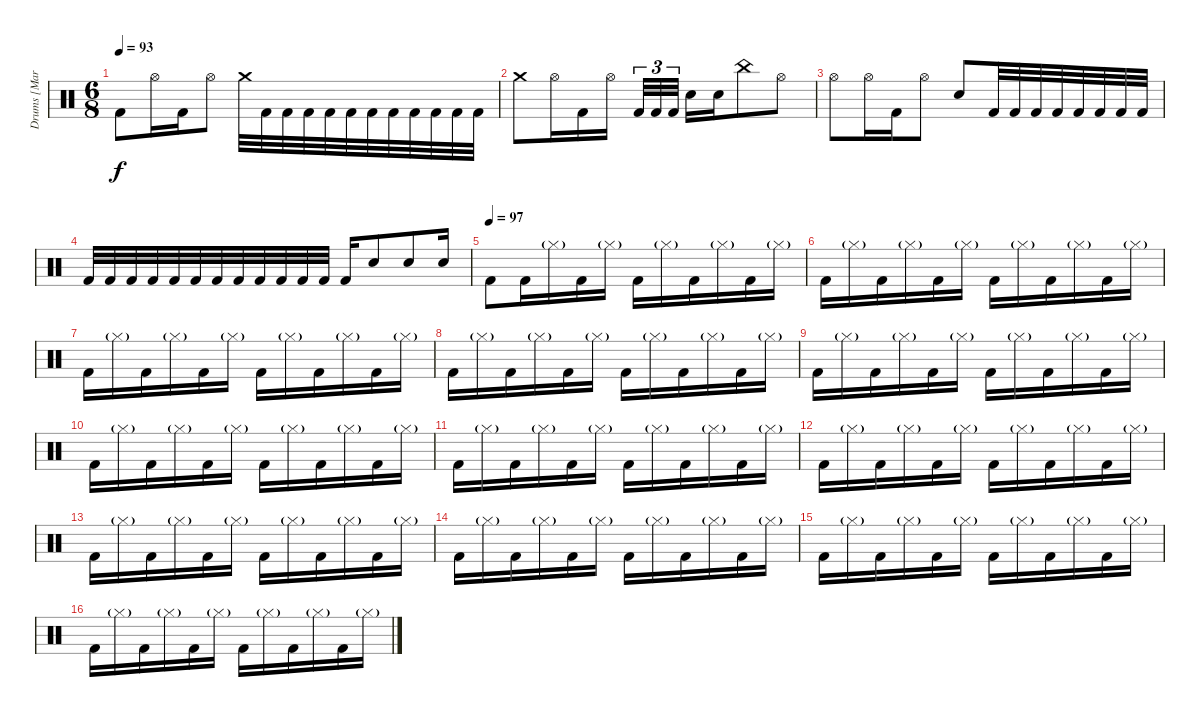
\track ("Drums [Martin Lopez]" "Drums [Mar") {instrument percussion}
\staff {score}
\articulation defaults
\ts (6 8)
\tempo 93
\clef neutral
\ks c "Kick (hit) 2".8{dy f} "Hi-Hat (open)".16 "Kick (hit) 2".16 "Hi-Hat (open)".8 "Crash medium (hit)".32 "Kick (hit) 2".32 "Kick (hit) 2".32 "Kick (hit) 2".32 "Kick (hit) 2".32 "Kick (hit) 2".32 "Kick (hit) 2".32 "Kick (hit) 2".32 "Kick (hit) 2".32 "Kick (hit) 2".32 "Kick (hit) 2".32 "Kick (hit) 2".32
|
"Crash medium (hit)".8 "Hi-Hat (open)".16 "Kick (hit) 2".16 "Hi-Hat (open)".16 "Kick (hit) 2".32{tu (3 2)} "Kick (hit) 2".32{tu (3 2)} "Kick (hit) 2".32{tu (3 2)} "Snare (hit) 2".16 "Snare (hit) 2".16 "China (hit)".8 "Hi-Hat (open)".8 |
"Hi-Hat (open)".8 "Hi-Hat (open)".16 "Kick (hit) 2".16 "Hi-Hat (open)".8 "Snare (hit) 2".8 "Kick (hit) 2".32 "Kick (hit) 2".32 "Kick (hit) 2".32 "Kick (hit) 2".32 "Kick (hit) 2".32 "Kick (hit) 2".32 "Kick (hit) 2".32 "Kick (hit) 2".32 |
"Kick (hit) 2".32 "Kick (hit) 2".32 "Kick (hit) 2".32 "Kick (hit) 2".32 "Kick (hit) 2".32 "Kick (hit) 2".32 "Kick (hit) 2".32 "Kick (hit) 2".32 "Kick (hit) 2".32 "Kick (hit) 2".32 "Kick (hit) 2".32 "Kick (hit) 2".32 "Kick (hit) 2".16 "Snare (hit) 2".8 "Snare (hit) 2".8 "Snare (hit) 2".16 |
\tempo (97)
"Kick (hit) 2".8 "Kick (hit) 2".16 "Hi-Hat (closed)"{g}.16 "Kick (hit) 2".16 "Hi-Hat (closed)"{g}.16 "Kick (hit) 2".16 "Hi-Hat (closed)"{g}.16 "Kick (hit) 2".16 "Hi-Hat (closed)"{g}.16 "Kick (hit) 2".16 "Hi-Hat (closed)"{g}.16 |
"Kick (hit) 2".16 "Hi-Hat (closed)"{g}.16 "Kick (hit) 2".16 "Hi-Hat (closed)"{g}.16 "Kick (hit) 2".16 "Hi-Hat (closed)"{g}.16 "Kick (hit) 2".16 "Hi-Hat (closed)"{g}.16 "Kick (hit) 2".16 "Hi-Hat (closed)"{g}.16 "Kick (hit) 2".16 "Hi-Hat (closed)"{g}.16 |
"Kick (hit) 2".16 "Hi-Hat (closed)"{g}.16 "Kick (hit) 2".16 "Hi-Hat (closed)"{g}.16 "Kick (hit) 2".16 "Hi-Hat (closed)"{g}.16 "Kick (hit) 2".16 "Hi-Hat (closed)"{g}.16 "Kick (hit) 2".16 "Hi-Hat (closed)"{g}.16 "Kick (hit) 2".16 "Hi-Hat (closed)"{g}.16 |
"Kick (hit) 2".16 "Hi-Hat (closed)"{g}.16 "Kick (hit) 2".16 "Hi-Hat (closed)"{g}.16 "Kick (hit) 2".16 "Hi-Hat (closed)"{g}.16 "Kick (hit) 2".16 "Hi-Hat (closed)"{g}.16 "Kick (hit) 2".16 "Hi-Hat (closed)"{g}.16 "Kick (hit) 2".16 "Hi-Hat (closed)"{g}.16 |
"Kick (hit) 2".16 "Hi-Hat (closed)"{g}.16 "Kick (hit) 2".16 "Hi-Hat (closed)"{g}.16 "Kick (hit) 2".16 "Hi-Hat (closed)"{g}.16 "Kick (hit) 2".16 "Hi-Hat (closed)"{g}.16 "Kick (hit) 2".16 "Hi-Hat (closed)"{g}.16 "Kick (hit) 2".16 "Hi-Hat (closed)"{g}.16 |
"Kick (hit) 2".16 "Hi-Hat (closed)"{g}.16 "Kick (hit) 2".16 "Hi-Hat (closed)"{g}.16 "Kick (hit) 2".16 "Hi-Hat (closed)"{g}.16 "Kick (hit) 2".16 "Hi-Hat (closed)"{g}.16 "Kick (hit) 2".16 "Hi-Hat (closed)"{g}.16 "Kick (hit) 2".16 "Hi-Hat (closed)"{g}.16 |
"Kick (hit) 2".16 "Hi-Hat (closed)"{g}.16 "Kick (hit) 2".16 "Hi-Hat (closed)"{g}.16 "Kick (hit) 2".16 "Hi-Hat (closed)"{g}.16 "Kick (hit) 2".16 "Hi-Hat (closed)"{g}.16 "Kick (hit) 2".16 "Hi-Hat (closed)"{g}.16 "Kick (hit) 2".16 "Hi-Hat (closed)"{g}.16 |
"Kick (hit) 2".16 "Hi-Hat (closed)"{g}.16 "Kick (hit) 2".16 "Hi-Hat (closed)"{g}.16 "Kick (hit) 2".16 "Hi-Hat (closed)"{g}.16 "Kick (hit) 2".16 "Hi-Hat (closed)"{g}.16 "Kick (hit) 2".16 "Hi-Hat (closed)"{g}.16 "Kick (hit) 2".16 "Hi-Hat (closed)"{g}.16 |
"Kick (hit) 2".16 "Hi-Hat (closed)"{g}.16 "Kick (hit) 2".16 "Hi-Hat (closed)"{g}.16 "Kick (hit) 2".16 "Hi-Hat (closed)"{g}.16 "Kick (hit) 2".16 "Hi-Hat (closed)"{g}.16 "Kick (hit) 2".16 "Hi-Hat (closed)"{g}.16 "Kick (hit) 2".16 "Hi-Hat (closed)"{g}.16 |
"Kick (hit) 2".16 "Hi-Hat (closed)"{g}.16 "Kick (hit) 2".16 "Hi-Hat (closed)"{g}.16 "Kick (hit) 2".16 "Hi-Hat (closed)"{g}.16 "Kick (hit) 2".16 "Hi-Hat (closed)"{g}.16 "Kick (hit) 2".16 "Hi-Hat (closed)"{g}.16 "Kick (hit) 2".16 "Hi-Hat (closed)"{g}.16 |
"Kick (hit) 2".16 "Hi-Hat (closed)"{g}.16 "Kick (hit) 2".16 "Hi-Hat (closed)"{g}.16 "Kick (hit) 2".16 "Hi-Hat (closed)"{g}.16 "Kick (hit) 2".16 "Hi-Hat (closed)"{g}.16 "Kick (hit) 2".16 "Hi-Hat (closed)"{g}.16 "Kick (hit) 2".16 "Hi-Hat (closed)"{g}.16 |
"Kick (hit) 2".16 "Hi-Hat (closed)"{g}.16 "Kick (hit) 2".16 "Hi-Hat (closed)"{g}.16 "Kick (hit) 2".16 "Hi-Hat (closed)"{g}.16 "Kick (hit) 2".16 "Hi-Hat (closed)"{g}.16 "Kick (hit) 2".16 "Hi-Hat (closed)"{g}.16 "Kick (hit) 2".16 "Hi-Hat (closed)"{g}.16
